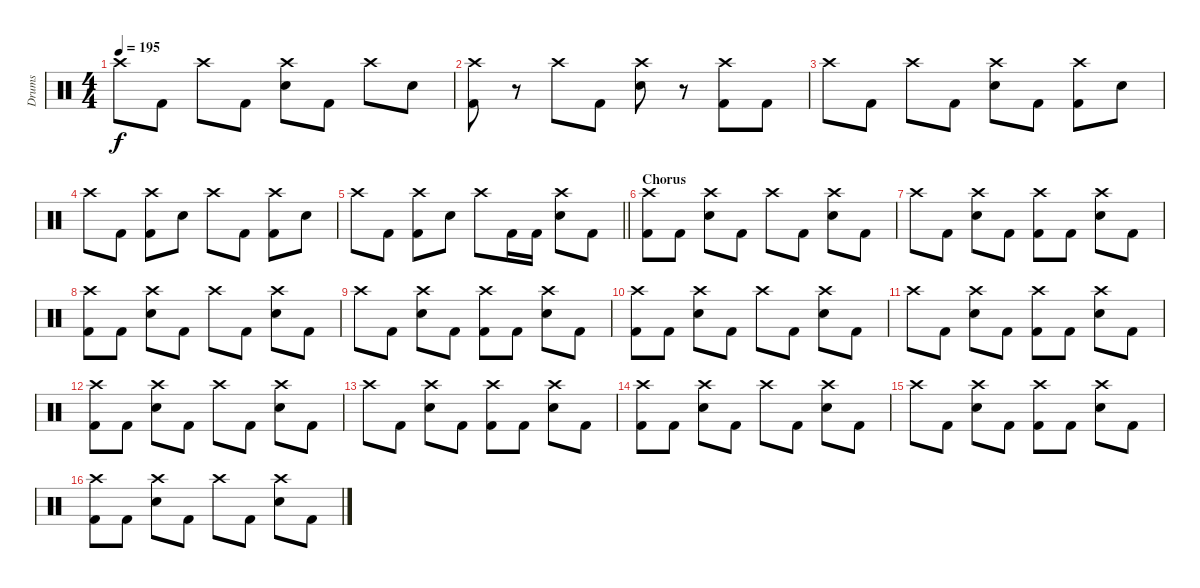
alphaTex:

\track ("Drums" "Drums") {instrument percussion}
\staff {score}
\articulation defaults
\ts (4 4)
\tempo 195
\clef neutral
\ks c "Crash high (hit)".8{dy f} "Kick (hit) 2".8 "Crash high (hit)".8 "Kick (hit) 2".8
("Crash high (hit)" "Snare (hit) 2").8 "Kick (hit) 2".8 "Crash high (hit)".8 "Snare (hit) 2".8 |
("Crash high (hit)" "Kick (hit) 2").8 r.8 "Crash high (hit)".8 "Kick (hit) 2".8 ("Crash high (hit)" "Snare (hit) 2").8 r.8 ("Crash high (hit)" "Kick (hit) 2").8 "Kick (hit) 2".8 |
"Crash high (hit)".8 "Kick (hit) 2".8 "Crash high (hit)".8 "Kick (hit) 2".8 ("Crash high (hit)" "Snare (hit) 2").8 "Kick (hit) 2".8 ("Crash high (hit)" "Kick (hit) 2").8 "Snare (hit) 2".8 |
"Crash high (hit)".8 "Kick (hit) 2".8 ("Crash high (hit)" "Kick (hit) 2").8 "Snare (hit) 2".8 "Crash high (hit)".8 "Kick (hit) 2".8 ("Crash high (hit)" "Kick (hit) 2").8 "Snare (hit) 2".8 |
\barLineRight lightlight "Crash high (hit)".8 "Kick (hit) 2".8
("Crash high (hit)" "Kick (hit) 2").8 "Snare (hit) 2".8 "Crash high (hit)".8 "Kick (hit) 2".16 "Kick (hit) 2".16 ("Crash high (hit)" "Snare (hit) 2").8 "Kick (hit) 2".8 |
\section ("" "Chorus")
("Crash high (hit)" "Kick (hit) 2").8 "Kick (hit) 2".8 ("Crash high (hit)" "Snare (hit) 2").8 "Kick (hit) 2".8 "Crash high (hit)".8 "Kick (hit) 2".8 ("Crash high (hit)" "Snare (hit) 2").8 "Kick (hit) 2".8 |
"Crash high (hit)".8 "Kick (hit) 2".8 ("Crash high (hit)" "Snare (hit) 2").8 "Kick (hit) 2".8 ("Crash high (hit)" "Kick (hit) 2").8 "Kick (hit) 2".8 ("Crash high (hit)" "Snare (hit) 2").8 "Kick (hit) 2".8 |
("Crash high (hit)" "Kick (hit) 2").8 "Kick (hit) 2".8 ("Crash high (hit)" "Snare (hit) 2").8 "Kick (hit) 2".8 "Crash high (hit)".8 "Kick (hit) 2".8 ("Crash high (hit)" "Snare (hit) 2").8 "Kick (hit) 2".8 |
"Crash high (hit)".8 "Kick (hit) 2".8 ("Crash high (hit)" "Snare (hit) 2").8 "Kick (hit) 2".8 ("Crash high (hit)" "Kick (hit) 2").8 "Kick (hit) 2".8 ("Crash high (hit)" "Snare (hit) 2").8 "Kick (hit) 2".8 |
("Crash high (hit)" "Kick (hit) 2").8 "Kick (hit) 2".8 ("Crash high (hit)" "Snare (hit) 2").8 "Kick (hit) 2".8 "Crash high (hit)".8 "Kick (hit) 2".8 ("Crash high (hit)" "Snare (hit) 2").8 "Kick (hit) 2".8 |
"Crash high (hit)".8 "Kick (hit) 2".8 ("Crash high (hit)" "Snare (hit) 2").8 "Kick (hit) 2".8 ("Crash high (hit)" "Kick (hit) 2").8 "Kick (hit) 2".8 ("Crash high (hit)" "Snare (hit) 2").8 "Kick (hit) 2".8 |
("Crash high (hit)" "Kick (hit) 2").8 "Kick (hit) 2".8 ("Crash high (hit)" "Snare (hit) 2").8 "Kick (hit) 2".8 "Crash high (hit)".8 "Kick (hit) 2".8 ("Crash high (hit)" "Snare (hit) 2").8 "Kick (hit) 2".8 |
"Crash high (hit)".8 "Kick (hit) 2".8 ("Crash high (hit)" "Snare (hit) 2").8 "Kick (hit) 2".8 ("Crash high (hit)" "Kick (hit) 2").8 "Kick (hit) 2".8 ("Crash high (hit)" "Snare (hit) 2").8 "Kick (hit) 2".8 |
("Crash high (hit)" "Kick (hit) 2").8 "Kick (hit) 2".8 ("Crash high (hit)" "Snare (hit) 2").8 "Kick (hit) 2".8 "Crash high (hit)".8 "Kick (hit) 2".8 ("Crash high (hit)" "Snare (hit) 2").8 "Kick (hit) 2".8 |
"Crash high (hit)".8 "Kick (hit) 2".8 ("Crash high (hit)" "Snare (hit) 2").8 "Kick (hit) 2".8 ("Crash high (hit)" "Kick (hit) 2").8 "Kick (hit) 2".8 ("Crash high (hit)" "Snare (hit) 2").8 "Kick (hit) 2".8 |
("Crash high (hit)" "Kick (hit) 2").8 "Kick (hit) 2".8 ("Crash high (hit)" "Snare (hit) 2").8 "Kick (hit) 2".8 "Crash high (hit)".8 "Kick (hit) 2".8 ("Crash high (hit)" "Snare (hit) 2").8 "Kick (hit) 2".8
